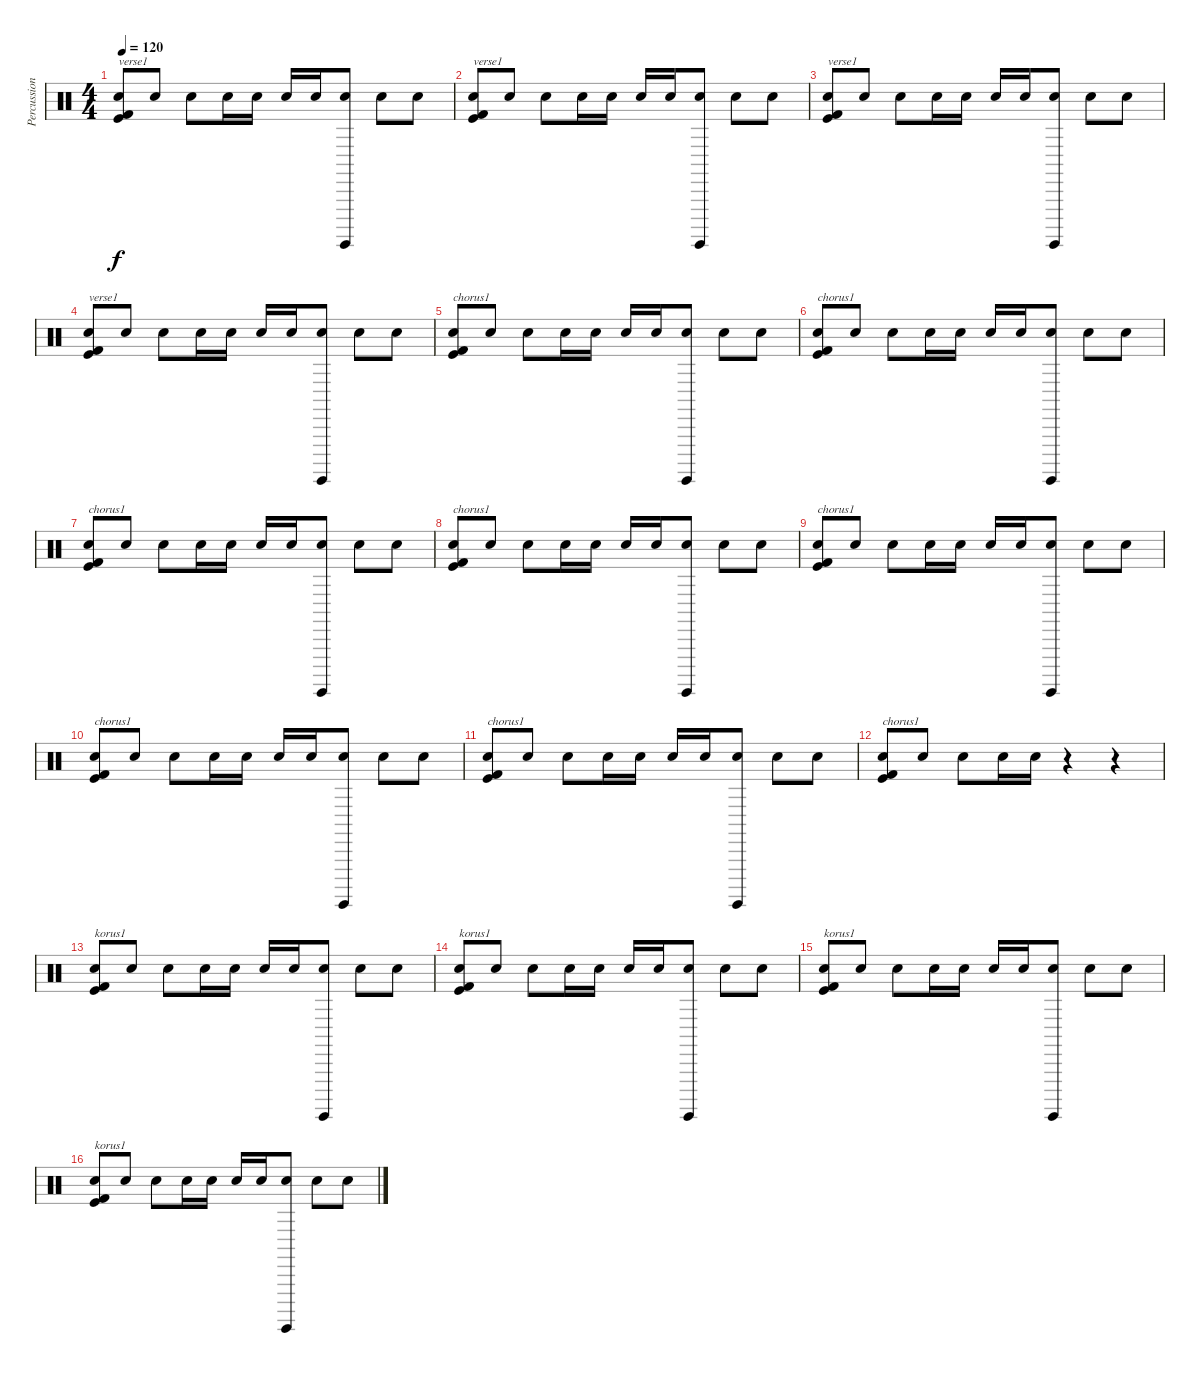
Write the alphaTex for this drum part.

\track ("Percussion" "Percussion") {instrument percussion}
\staff {score}
\articulation defaults
\ts (4 4)
\tempo 120
\clef neutral
\ks c
("Hand Clap (hit)" "Kick (hit)" "Kick (hit) 2").8{txt "verse1" dy f} "Hand Clap (hit)".8 "Hand Clap (hit)".8 "Hand Clap (hit)".16 "Hand Clap (hit)".16 "Hand Clap (hit)".16 "Hand Clap (hit)".16 ("Hand Clap (hit)" "Surdo (hit)").8 "Hand Clap (hit)".8 "Hand Clap (hit)".8 |
("Hand Clap (hit)" "Kick (hit)" "Kick (hit) 2").8{txt "verse1"} "Hand Clap (hit)".8 "Hand Clap (hit)".8 "Hand Clap (hit)".16 "Hand Clap (hit)".16 "Hand Clap (hit)".16 "Hand Clap (hit)".16 ("Hand Clap (hit)" "Surdo (hit)").8 "Hand Clap (hit)".8 "Hand Clap (hit)".8 |
("Hand Clap (hit)" "Kick (hit) 2" "Kick (hit)").8{txt "verse1"} "Hand Clap (hit)".8 "Hand Clap (hit)".8 "Hand Clap (hit)".16 "Hand Clap (hit)".16 "Hand Clap (hit)".16 "Hand Clap (hit)".16 ("Hand Clap (hit)" "Surdo (hit)").8 "Hand Clap (hit)".8 "Hand Clap (hit)".8 |
("Hand Clap (hit)" "Kick (hit) 2" "Kick (hit)").8{txt "verse1"} "Hand Clap (hit)".8 "Hand Clap (hit)".8 "Hand Clap (hit)".16 "Hand Clap (hit)".16 "Hand Clap (hit)".16 "Hand Clap (hit)".16 ("Hand Clap (hit)" "Surdo (hit)").8 "Hand Clap (hit)".8 "Hand Clap (hit)".8 |
("Hand Clap (hit)" "Kick (hit) 2" "Kick (hit)").8{txt "chorus1"} "Hand Clap (hit)".8 "Hand Clap (hit)".8 "Hand Clap (hit)".16 "Hand Clap (hit)".16 "Hand Clap (hit)".16 "Hand Clap (hit)".16 ("Hand Clap (hit)" "Surdo (hit)").8 "Hand Clap (hit)".8 "Hand Clap (hit)".8 |
("Hand Clap (hit)" "Kick (hit) 2" "Kick (hit)").8{txt "chorus1"} "Hand Clap (hit)".8 "Hand Clap (hit)".8 "Hand Clap (hit)".16 "Hand Clap (hit)".16 "Hand Clap (hit)".16 "Hand Clap (hit)".16 ("Hand Clap (hit)" "Surdo (hit)").8 "Hand Clap (hit)".8 "Hand Clap (hit)".8 |
("Hand Clap (hit)" "Kick (hit) 2" "Kick (hit)").8{txt "chorus1"} "Hand Clap (hit)".8 "Hand Clap (hit)".8 "Hand Clap (hit)".16 "Hand Clap (hit)".16 "Hand Clap (hit)".16 "Hand Clap (hit)".16 ("Hand Clap (hit)" "Surdo (hit)").8 "Hand Clap (hit)".8 "Hand Clap (hit)".8 |
("Hand Clap (hit)" "Kick (hit) 2" "Kick (hit)").8{txt "chorus1"} "Hand Clap (hit)".8 "Hand Clap (hit)".8 "Hand Clap (hit)".16 "Hand Clap (hit)".16 "Hand Clap (hit)".16 "Hand Clap (hit)".16 ("Hand Clap (hit)" "Surdo (hit)").8 "Hand Clap (hit)".8 "Hand Clap (hit)".8 |
("Hand Clap (hit)" "Kick (hit) 2" "Kick (hit)").8{txt "chorus1"} "Hand Clap (hit)".8 "Hand Clap (hit)".8 "Hand Clap (hit)".16 "Hand Clap (hit)".16 "Hand Clap (hit)".16 "Hand Clap (hit)".16 ("Hand Clap (hit)" "Surdo (hit)").8 "Hand Clap (hit)".8 "Hand Clap (hit)".8 |
("Hand Clap (hit)" "Kick (hit) 2" "Kick (hit)").8{txt "chorus1"} "Hand Clap (hit)".8 "Hand Clap (hit)".8 "Hand Clap (hit)".16 "Hand Clap (hit)".16 "Hand Clap (hit)".16 "Hand Clap (hit)".16 ("Hand Clap (hit)" "Surdo (hit)").8 "Hand Clap (hit)".8 "Hand Clap (hit)".8 |
("Hand Clap (hit)" "Kick (hit) 2" "Kick (hit)").8{txt "chorus1"} "Hand Clap (hit)".8 "Hand Clap (hit)".8 "Hand Clap (hit)".16 "Hand Clap (hit)".16 "Hand Clap (hit)".16 "Hand Clap (hit)".16 ("Hand Clap (hit)" "Surdo (hit)").8 "Hand Clap (hit)".8 "Hand Clap (hit)".8 |
("Hand Clap (hit)" "Kick (hit) 2" "Kick (hit)").8{txt "chorus1"} "Hand Clap (hit)".8 "Hand Clap (hit)".8 "Hand Clap (hit)".16 "Hand Clap (hit)".16 r.4 r.4 |
("Hand Clap (hit)" "Kick (hit) 2" "Kick (hit)").8{txt "korus1"} "Hand Clap (hit)".8 "Hand Clap (hit)".8 "Hand Clap (hit)".16 "Hand Clap (hit)".16 "Hand Clap (hit)".16 "Hand Clap (hit)".16 ("Hand Clap (hit)" "Surdo (hit)").8 "Hand Clap (hit)".8 "Hand Clap (hit)".8 |
("Hand Clap (hit)" "Kick (hit) 2" "Kick (hit)").8{txt "korus1"} "Hand Clap (hit)".8 "Hand Clap (hit)".8 "Hand Clap (hit)".16 "Hand Clap (hit)".16 "Hand Clap (hit)".16 "Hand Clap (hit)".16 ("Hand Clap (hit)" "Surdo (hit)").8 "Hand Clap (hit)".8 "Hand Clap (hit)".8 |
("Hand Clap (hit)" "Kick (hit) 2" "Kick (hit)").8{txt "korus1"} "Hand Clap (hit)".8 "Hand Clap (hit)".8 "Hand Clap (hit)".16 "Hand Clap (hit)".16 "Hand Clap (hit)".16 "Hand Clap (hit)".16 ("Hand Clap (hit)" "Surdo (hit)").8 "Hand Clap (hit)".8 "Hand Clap (hit)".8 |
("Hand Clap (hit)" "Kick (hit) 2" "Kick (hit)").8{txt "korus1"} "Hand Clap (hit)".8 "Hand Clap (hit)".8 "Hand Clap (hit)".16 "Hand Clap (hit)".16 "Hand Clap (hit)".16 "Hand Clap (hit)".16 ("Hand Clap (hit)" "Surdo (hit)").8 "Hand Clap (hit)".8 "Hand Clap (hit)".8
